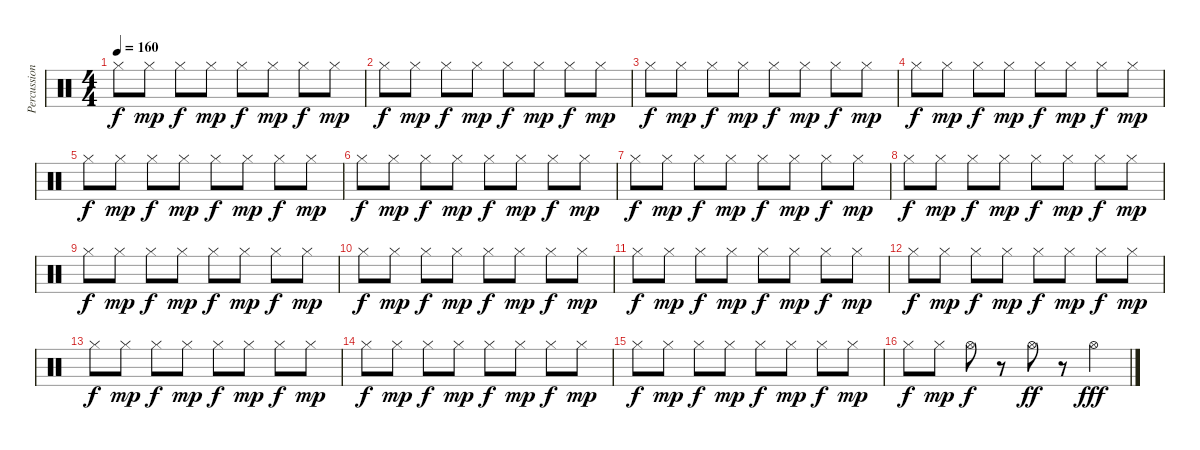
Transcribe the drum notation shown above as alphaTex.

\track ("Percussion" "Percussion") {instrument percussion}
\staff {score}
\articulation defaults
\ts (4 4)
\tempo 160
\clef neutral
\ks c "Hi-Hat (closed)".8{dy f} "Hi-Hat (closed)".8{dy mp} "Hi-Hat (closed)".8{dy f} "Hi-Hat (closed)".8{dy mp} "Hi-Hat (closed)".8{dy f} "Hi-Hat (closed)".8{dy mp} "Hi-Hat (closed)".8{dy f} "Hi-Hat (closed)".8{dy mp}
|
"Hi-Hat (closed)".8{dy f} "Hi-Hat (closed)".8{dy mp} "Hi-Hat (closed)".8{dy f} "Hi-Hat (closed)".8{dy mp} "Hi-Hat (closed)".8{dy f} "Hi-Hat (closed)".8{dy mp} "Hi-Hat (closed)".8{dy f} "Hi-Hat (closed)".8{dy mp} |
"Hi-Hat (closed)".8{dy f} "Hi-Hat (closed)".8{dy mp} "Hi-Hat (closed)".8{dy f} "Hi-Hat (closed)".8{dy mp} "Hi-Hat (closed)".8{dy f} "Hi-Hat (closed)".8{dy mp} "Hi-Hat (closed)".8{dy f} "Hi-Hat (closed)".8{dy mp} |
"Hi-Hat (closed)".8{dy f} "Hi-Hat (closed)".8{dy mp} "Hi-Hat (closed)".8{dy f} "Hi-Hat (closed)".8{dy mp} "Hi-Hat (closed)".8{dy f} "Hi-Hat (closed)".8{dy mp} "Hi-Hat (closed)".8{dy f} "Hi-Hat (closed)".8{dy mp} |
"Hi-Hat (closed)".8{dy f} "Hi-Hat (closed)".8{dy mp} "Hi-Hat (closed)".8{dy f} "Hi-Hat (closed)".8{dy mp} "Hi-Hat (closed)".8{dy f} "Hi-Hat (closed)".8{dy mp} "Hi-Hat (closed)".8{dy f} "Hi-Hat (closed)".8{dy mp} |
"Hi-Hat (closed)".8{dy f} "Hi-Hat (closed)".8{dy mp} "Hi-Hat (closed)".8{dy f} "Hi-Hat (closed)".8{dy mp} "Hi-Hat (closed)".8{dy f} "Hi-Hat (closed)".8{dy mp} "Hi-Hat (closed)".8{dy f} "Hi-Hat (closed)".8{dy mp} |
"Hi-Hat (closed)".8{dy f} "Hi-Hat (closed)".8{dy mp} "Hi-Hat (closed)".8{dy f} "Hi-Hat (closed)".8{dy mp} "Hi-Hat (closed)".8{dy f} "Hi-Hat (closed)".8{dy mp} "Hi-Hat (closed)".8{dy f} "Hi-Hat (closed)".8{dy mp} |
"Hi-Hat (closed)".8{dy f} "Hi-Hat (closed)".8{dy mp} "Hi-Hat (closed)".8{dy f} "Hi-Hat (closed)".8{dy mp} "Hi-Hat (closed)".8{dy f} "Hi-Hat (closed)".8{dy mp} "Hi-Hat (closed)".8{dy f} "Hi-Hat (closed)".8{dy mp} |
"Hi-Hat (closed)".8{dy f} "Hi-Hat (closed)".8{dy mp} "Hi-Hat (closed)".8{dy f} "Hi-Hat (closed)".8{dy mp} "Hi-Hat (closed)".8{dy f} "Hi-Hat (closed)".8{dy mp} "Hi-Hat (closed)".8{dy f} "Hi-Hat (closed)".8{dy mp} |
"Hi-Hat (closed)".8{dy f} "Hi-Hat (closed)".8{dy mp} "Hi-Hat (closed)".8{dy f} "Hi-Hat (closed)".8{dy mp} "Hi-Hat (closed)".8{dy f} "Hi-Hat (closed)".8{dy mp} "Hi-Hat (closed)".8{dy f} "Hi-Hat (closed)".8{dy mp} |
"Hi-Hat (closed)".8{dy f} "Hi-Hat (closed)".8{dy mp} "Hi-Hat (closed)".8{dy f} "Hi-Hat (closed)".8{dy mp} "Hi-Hat (closed)".8{dy f} "Hi-Hat (closed)".8{dy mp} "Hi-Hat (closed)".8{dy f} "Hi-Hat (closed)".8{dy mp} |
"Hi-Hat (closed)".8{dy f} "Hi-Hat (closed)".8{dy mp} "Hi-Hat (closed)".8{dy f} "Hi-Hat (closed)".8{dy mp} "Hi-Hat (closed)".8{dy f} "Hi-Hat (closed)".8{dy mp} "Hi-Hat (closed)".8{dy f} "Hi-Hat (closed)".8{dy mp} |
"Hi-Hat (closed)".8{dy f} "Hi-Hat (closed)".8{dy mp} "Hi-Hat (closed)".8{dy f} "Hi-Hat (closed)".8{dy mp} "Hi-Hat (closed)".8{dy f} "Hi-Hat (closed)".8{dy mp} "Hi-Hat (closed)".8{dy f} "Hi-Hat (closed)".8{dy mp} |
"Hi-Hat (closed)".8{dy f} "Hi-Hat (closed)".8{dy mp} "Hi-Hat (closed)".8{dy f} "Hi-Hat (closed)".8{dy mp} "Hi-Hat (closed)".8{dy f} "Hi-Hat (closed)".8{dy mp} "Hi-Hat (closed)".8{dy f} "Hi-Hat (closed)".8{dy mp} |
"Hi-Hat (closed)".8{dy f} "Hi-Hat (closed)".8{dy mp} "Hi-Hat (closed)".8{dy f} "Hi-Hat (closed)".8{dy mp} "Hi-Hat (closed)".8{dy f} "Hi-Hat (closed)".8{dy mp} "Hi-Hat (closed)".8{dy f} "Hi-Hat (closed)".8{dy mp} |
"Hi-Hat (closed)".8{dy f} "Hi-Hat (closed)".8{dy mp} "Hi-Hat (open)".8{dy f} r.8 "Hi-Hat (open)".8{dy ff} r.8 "Hi-Hat (open)".4{dy fff}
